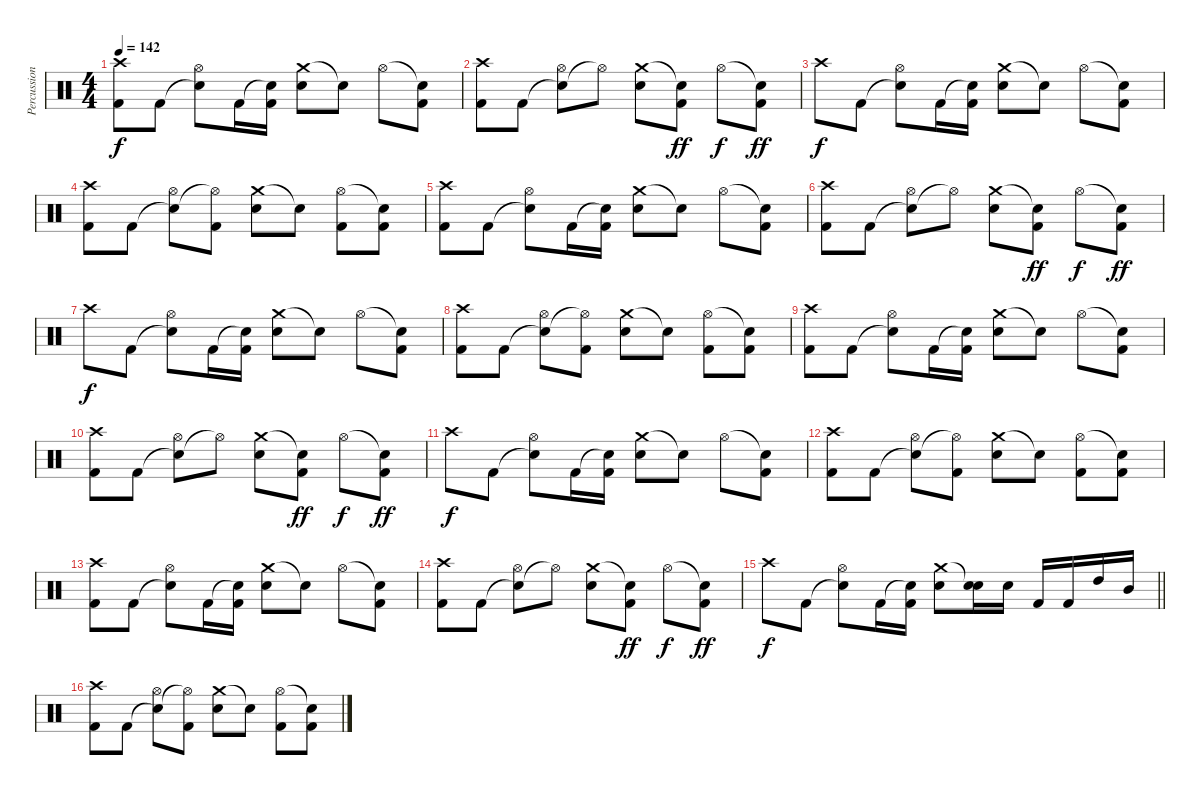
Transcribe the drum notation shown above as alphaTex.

\track ("Percussion" "Percussion") {instrument percussion}
\staff {score}
\articulation defaults
\ts (4 4)
\tempo 142
\clef neutral
\ks c
("Crash high (hit)" "Kick (hit) 2").8{dy f} "Kick (hit) 2".8 ("Snare (hit)"{t} "Hi-Hat (open)").8 "Kick (hit) 2".16 ("Snare (hit)"{t} "Kick (hit) 2").16 ("Crash medium (hit)" "Electric Snare (hit)").8 "Snare (hit)"{t}.8 "Hi-Hat (open)".8 ("Snare (hit)"{t} "Kick (hit) 2").8 |
("Crash high (hit)" "Kick (hit) 2").8 "Kick (hit) 2".8 ("Snare (hit)"{t} "Hi-Hat (open)").8 "Hi-Hat (open)"{t}.8 ("Crash medium (hit)" "Electric Snare (hit)").8 ("Snare (hit)"{t} "Kick (hit) 2").8{dy ff} "Hi-Hat (open)".8{dy f} ("Snare (hit)"{t} "Kick (hit) 2").8{dy ff} |
"Crash high (hit)".8{dy f} "Kick (hit) 2".8 ("Snare (hit)"{t} "Hi-Hat (open)").8 "Kick (hit) 2".16 ("Snare (hit)"{t} "Kick (hit) 2").16 ("Crash medium (hit)" "Electric Snare (hit)").8 "Snare (hit)"{t}.8 "Hi-Hat (open)".8 ("Snare (hit)"{t} "Kick (hit) 2").8 |
("Crash high (hit)" "Kick (hit) 2").8 "Kick (hit) 2".8 ("Snare (hit)"{t} "Hi-Hat (open)").8 ("Hi-Hat (open)"{t} "Kick (hit) 2").8 ("Crash medium (hit)" "Electric Snare (hit)").8 "Snare (hit)"{t}.8 ("Hi-Hat (open)" "Kick (hit) 2").8 ("Snare (hit)"{t} "Kick (hit) 2").8 |
("Crash high (hit)" "Kick (hit) 2").8 "Kick (hit) 2".8 ("Snare (hit)"{t} "Hi-Hat (open)").8 "Kick (hit) 2".16 ("Snare (hit)"{t} "Kick (hit) 2").16 ("Crash medium (hit)" "Electric Snare (hit)").8 "Snare (hit)"{t}.8 "Hi-Hat (open)".8 ("Snare (hit)"{t} "Kick (hit) 2").8 |
("Crash high (hit)" "Kick (hit) 2").8 "Kick (hit) 2".8 ("Snare (hit)"{t} "Hi-Hat (open)").8 "Hi-Hat (open)"{t}.8 ("Crash medium (hit)" "Electric Snare (hit)").8 ("Snare (hit)"{t} "Kick (hit) 2").8{dy ff} "Hi-Hat (open)".8{dy f} ("Snare (hit)"{t} "Kick (hit) 2").8{dy ff} |
"Crash high (hit)".8{dy f} "Kick (hit) 2".8 ("Snare (hit)"{t} "Hi-Hat (open)").8 "Kick (hit) 2".16 ("Snare (hit)"{t} "Kick (hit) 2").16 ("Crash medium (hit)" "Electric Snare (hit)").8 "Snare (hit)"{t}.8 "Hi-Hat (open)".8 ("Snare (hit)"{t} "Kick (hit) 2").8 |
("Crash high (hit)" "Kick (hit) 2").8 "Kick (hit) 2".8 ("Snare (hit)"{t} "Hi-Hat (open)").8 ("Hi-Hat (open)"{t} "Kick (hit) 2").8 ("Crash medium (hit)" "Electric Snare (hit)").8 "Snare (hit)"{t}.8 ("Hi-Hat (open)" "Kick (hit) 2").8 ("Snare (hit)"{t} "Kick (hit) 2").8 |
("Crash high (hit)" "Kick (hit) 2").8 "Kick (hit) 2".8 ("Snare (hit)"{t} "Hi-Hat (open)").8 "Kick (hit) 2".16 ("Snare (hit)"{t} "Kick (hit) 2").16 ("Crash medium (hit)" "Electric Snare (hit)").8 "Snare (hit)"{t}.8 "Hi-Hat (open)".8 ("Snare (hit)"{t} "Kick (hit) 2").8 |
("Crash high (hit)" "Kick (hit) 2").8 "Kick (hit) 2".8 ("Snare (hit)"{t} "Hi-Hat (open)").8 "Hi-Hat (open)"{t}.8 ("Crash medium (hit)" "Electric Snare (hit)").8 ("Snare (hit)"{t} "Kick (hit) 2").8{dy ff} "Hi-Hat (open)".8{dy f} ("Snare (hit)"{t} "Kick (hit) 2").8{dy ff} |
"Crash high (hit)".8{dy f} "Kick (hit) 2".8 ("Snare (hit)"{t} "Hi-Hat (open)").8 "Kick (hit) 2".16 ("Snare (hit)"{t} "Kick (hit) 2").16 ("Crash medium (hit)" "Electric Snare (hit)").8 "Snare (hit)"{t}.8 "Hi-Hat (open)".8 ("Snare (hit)"{t} "Kick (hit) 2").8 |
("Crash high (hit)" "Kick (hit) 2").8 "Kick (hit) 2".8 ("Snare (hit)"{t} "Hi-Hat (open)").8 ("Hi-Hat (open)"{t} "Kick (hit) 2").8 ("Crash medium (hit)" "Electric Snare (hit)").8 "Snare (hit)"{t}.8 ("Hi-Hat (open)" "Kick (hit) 2").8 ("Snare (hit)"{t} "Kick (hit) 2").8 |
("Crash high (hit)" "Kick (hit) 2").8 "Kick (hit) 2".8 ("Snare (hit)"{t} "Hi-Hat (open)").8 "Kick (hit) 2".16 ("Snare (hit)"{t} "Kick (hit) 2").16 ("Crash medium (hit)" "Electric Snare (hit)").8 "Snare (hit)"{t}.8 "Hi-Hat (open)".8 ("Snare (hit)"{t} "Kick (hit) 2").8 |
("Crash high (hit)" "Kick (hit) 2").8 "Kick (hit) 2".8 ("Snare (hit)"{t} "Hi-Hat (open)").8 "Hi-Hat (open)"{t}.8 ("Crash medium (hit)" "Electric Snare (hit)").8 ("Snare (hit)"{t} "Kick (hit) 2").8{dy ff} "Hi-Hat (open)".8{dy f} ("Snare (hit)"{t} "Kick (hit) 2").8{dy ff} |
\barLineRight lightlight "Crash high (hit)".8{dy f} "Kick (hit) 2".8
("Snare (hit)"{t} "Hi-Hat (open)").8 "Kick (hit) 2".16 ("Snare (hit)"{t} "Kick (hit) 2").16 ("Crash medium (hit)" "Electric Snare (hit)").8 ("Snare (hit)"{t} "Electric Snare (hit)").16 "Electric Snare (hit)".16 "Kick (hit) 2".16 "Kick (hit) 2".16 "High Tom (hit)".16 "Mid Tom (hit)".16 |
("Crash high (hit)" "Kick (hit) 2").8 "Kick (hit) 2".8 ("Snare (hit)"{t} "Hi-Hat (open)").8 ("Hi-Hat (open)"{t} "Kick (hit) 2").8 ("Crash medium (hit)" "Electric Snare (hit)").8 "Snare (hit)"{t}.8 ("Hi-Hat (open)" "Kick (hit) 2").8 ("Snare (hit)"{t} "Kick (hit) 2").8
